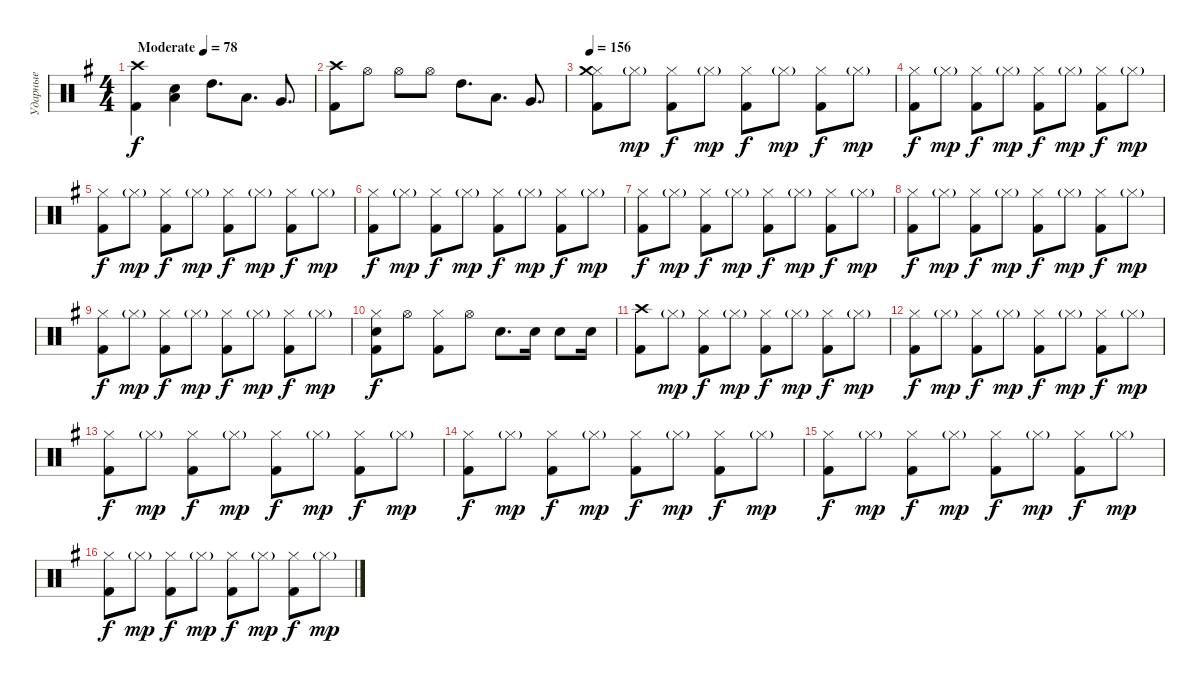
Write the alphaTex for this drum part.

\track ("Ударные" "Ударные") {instrument percussion}
\staff {score}
\articulation defaults
\ts (4 4)
\tempo (78 "Moderate")
\clef neutral
\ks g
("Crash high (hit)" "Kick (hit) 2").4{dy f} ("Electric Snare (hit)" "Low Tom (hit)").4 "High Tom (hit)".8{d} "Low Tom (hit)".8{d} "Very Low Tom (hit)".8{d} |
("Crash high (hit)" "Kick (hit) 2").8 "Hi-Hat (open)".8 "Hi-Hat (open)".8 "Hi-Hat (open)".8 "High Tom (hit)".8{d} "Low Tom (hit)".8{d} "Very Low Tom (hit)".8{d} |
\tempo 156
("Kick (hit) 2" "Hi-Hat (closed)" "Crash medium (hit)").8 "Hi-Hat (closed)"{g}.8{dy mp} ("Kick (hit) 2" "Hi-Hat (closed)").8{dy f} "Hi-Hat (closed)"{g}.8{dy mp} ("Kick (hit) 2" "Hi-Hat (closed)").8{dy f} "Hi-Hat (closed)"{g}.8{dy mp} ("Kick (hit) 2" "Hi-Hat (closed)").8{dy f} "Hi-Hat (closed)"{g}.8{dy mp} |
("Kick (hit) 2" "Hi-Hat (closed)").8{dy f} "Hi-Hat (closed)"{g}.8{dy mp} ("Kick (hit) 2" "Hi-Hat (closed)").8{dy f} "Hi-Hat (closed)"{g}.8{dy mp} ("Kick (hit) 2" "Hi-Hat (closed)").8{dy f} "Hi-Hat (closed)"{g}.8{dy mp} ("Kick (hit) 2" "Hi-Hat (closed)").8{dy f} "Hi-Hat (closed)"{g}.8{dy mp} |
("Kick (hit) 2" "Hi-Hat (closed)").8{dy f} "Hi-Hat (closed)"{g}.8{dy mp} ("Kick (hit) 2" "Hi-Hat (closed)").8{dy f} "Hi-Hat (closed)"{g}.8{dy mp} ("Kick (hit) 2" "Hi-Hat (closed)").8{dy f} "Hi-Hat (closed)"{g}.8{dy mp} ("Kick (hit) 2" "Hi-Hat (closed)").8{dy f} "Hi-Hat (closed)"{g}.8{dy mp} |
("Kick (hit) 2" "Hi-Hat (closed)").8{dy f} "Hi-Hat (closed)"{g}.8{dy mp} ("Kick (hit) 2" "Hi-Hat (closed)").8{dy f} "Hi-Hat (closed)"{g}.8{dy mp} ("Kick (hit) 2" "Hi-Hat (closed)").8{dy f} "Hi-Hat (closed)"{g}.8{dy mp} ("Kick (hit) 2" "Hi-Hat (closed)").8{dy f} "Hi-Hat (closed)"{g}.8{dy mp} |
("Kick (hit) 2" "Hi-Hat (closed)").8{dy f} "Hi-Hat (closed)"{g}.8{dy mp} ("Kick (hit) 2" "Hi-Hat (closed)").8{dy f} "Hi-Hat (closed)"{g}.8{dy mp} ("Kick (hit) 2" "Hi-Hat (closed)").8{dy f} "Hi-Hat (closed)"{g}.8{dy mp} ("Kick (hit) 2" "Hi-Hat (closed)").8{dy f} "Hi-Hat (closed)"{g}.8{dy mp} |
("Kick (hit) 2" "Hi-Hat (closed)").8{dy f} "Hi-Hat (closed)"{g}.8{dy mp} ("Kick (hit) 2" "Hi-Hat (closed)").8{dy f} "Hi-Hat (closed)"{g}.8{dy mp} ("Kick (hit) 2" "Hi-Hat (closed)").8{dy f} "Hi-Hat (closed)"{g}.8{dy mp} ("Kick (hit) 2" "Hi-Hat (closed)").8{dy f} "Hi-Hat (closed)"{g}.8{dy mp} |
("Kick (hit) 2" "Hi-Hat (closed)").8{dy f} "Hi-Hat (closed)"{g}.8{dy mp} ("Kick (hit) 2" "Hi-Hat (closed)").8{dy f} "Hi-Hat (closed)"{g}.8{dy mp} ("Kick (hit) 2" "Hi-Hat (closed)").8{dy f} "Hi-Hat (closed)"{g}.8{dy mp} ("Kick (hit) 2" "Hi-Hat (closed)").8{dy f} "Hi-Hat (closed)"{g}.8{dy mp} |
("Kick (hit) 2" "Hi-Hat (closed)" "Snare (hit)").8{dy f} "Hi-Hat (open)".8 ("Kick (hit) 2" "Hi-Hat (closed)").8 "Hi-Hat (open)".8 "Electric Snare (hit)".8{d} "Electric Snare (hit)".16 "Electric Snare (hit)".8 "Electric Snare (hit)".16 |
("Kick (hit) 2" "Crash high (hit)").8 "Hi-Hat (closed)"{g}.8{dy mp} ("Kick (hit) 2" "Hi-Hat (closed)").8{dy f} "Hi-Hat (closed)"{g}.8{dy mp} ("Kick (hit) 2" "Hi-Hat (closed)").8{dy f} "Hi-Hat (closed)"{g}.8{dy mp} ("Kick (hit) 2" "Hi-Hat (closed)").8{dy f} "Hi-Hat (closed)"{g}.8{dy mp} |
("Kick (hit) 2" "Hi-Hat (closed)").8{dy f} "Hi-Hat (closed)"{g}.8{dy mp} ("Kick (hit) 2" "Hi-Hat (closed)").8{dy f} "Hi-Hat (closed)"{g}.8{dy mp} ("Kick (hit) 2" "Hi-Hat (closed)").8{dy f} "Hi-Hat (closed)"{g}.8{dy mp} ("Kick (hit) 2" "Hi-Hat (closed)").8{dy f} "Hi-Hat (closed)"{g}.8{dy mp} |
("Kick (hit) 2" "Hi-Hat (closed)").8{dy f} "Hi-Hat (closed)"{g}.8{dy mp} ("Kick (hit) 2" "Hi-Hat (closed)").8{dy f} "Hi-Hat (closed)"{g}.8{dy mp} ("Kick (hit) 2" "Hi-Hat (closed)").8{dy f} "Hi-Hat (closed)"{g}.8{dy mp} ("Kick (hit) 2" "Hi-Hat (closed)").8{dy f} "Hi-Hat (closed)"{g}.8{dy mp} |
("Kick (hit) 2" "Hi-Hat (closed)").8{dy f} "Hi-Hat (closed)"{g}.8{dy mp} ("Kick (hit) 2" "Hi-Hat (closed)").8{dy f} "Hi-Hat (closed)"{g}.8{dy mp} ("Kick (hit) 2" "Hi-Hat (closed)").8{dy f} "Hi-Hat (closed)"{g}.8{dy mp} ("Kick (hit) 2" "Hi-Hat (closed)").8{dy f} "Hi-Hat (closed)"{g}.8{dy mp} |
("Kick (hit) 2" "Hi-Hat (closed)").8{dy f} "Hi-Hat (closed)"{g}.8{dy mp} ("Kick (hit) 2" "Hi-Hat (closed)").8{dy f} "Hi-Hat (closed)"{g}.8{dy mp} ("Kick (hit) 2" "Hi-Hat (closed)").8{dy f} "Hi-Hat (closed)"{g}.8{dy mp} ("Kick (hit) 2" "Hi-Hat (closed)").8{dy f} "Hi-Hat (closed)"{g}.8{dy mp} |
("Kick (hit) 2" "Hi-Hat (closed)").8{dy f} "Hi-Hat (closed)"{g}.8{dy mp} ("Kick (hit) 2" "Hi-Hat (closed)").8{dy f} "Hi-Hat (closed)"{g}.8{dy mp} ("Kick (hit) 2" "Hi-Hat (closed)").8{dy f} "Hi-Hat (closed)"{g}.8{dy mp} ("Kick (hit) 2" "Hi-Hat (closed)").8{dy f} "Hi-Hat (closed)"{g}.8{dy mp}
